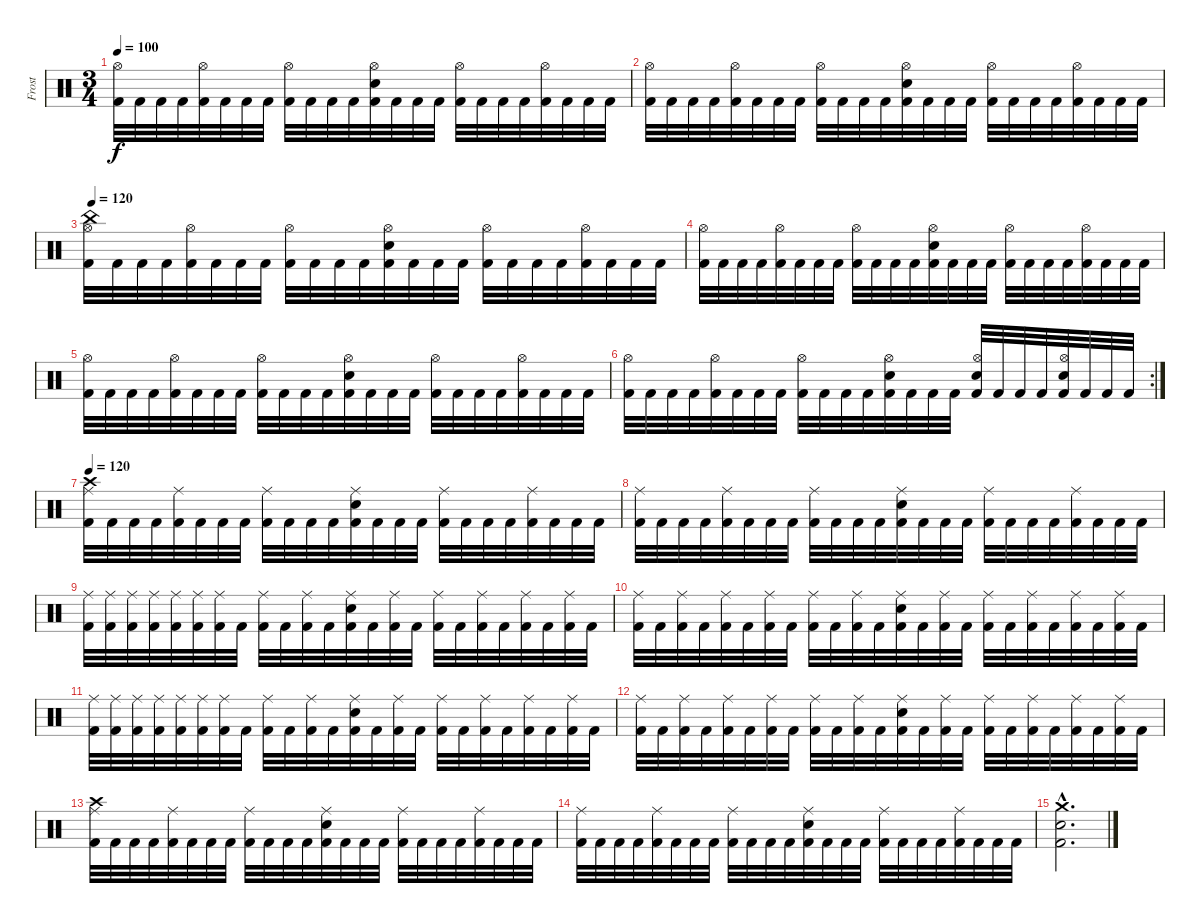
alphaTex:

\track ("Frost" "Frost") {instrument percussion}
\staff {score}
\articulation defaults
\ts (3 4)
\tempo 100
\clef neutral
\ks c
("Kick (hit) 2" "Hi-Hat (open)").32{dy f} "Kick (hit) 2".32 "Kick (hit) 2".32 "Kick (hit) 2".32 ("Kick (hit) 2" "Hi-Hat (open)").32 "Kick (hit) 2".32 "Kick (hit) 2".32 "Kick (hit) 2".32 ("Kick (hit) 2" "Hi-Hat (open)").32 "Kick (hit) 2".32 "Kick (hit) 2".32 "Kick (hit) 2".32 ("Kick (hit) 2" "Electric Snare (hit)" "Hi-Hat (open)").32 "Kick (hit) 2".32 "Kick (hit) 2".32 "Kick (hit) 2".32 ("Kick (hit) 2" "Hi-Hat (open)").32 "Kick (hit) 2".32 "Kick (hit) 2".32 "Kick (hit) 2".32 ("Kick (hit) 2" "Hi-Hat (open)").32 "Kick (hit) 2".32 "Kick (hit) 2".32 "Kick (hit) 2".32 |
("Kick (hit) 2" "Hi-Hat (open)").32 "Kick (hit) 2".32 "Kick (hit) 2".32 "Kick (hit) 2".32 ("Kick (hit) 2" "Hi-Hat (open)").32 "Kick (hit) 2".32 "Kick (hit) 2".32 "Kick (hit) 2".32 ("Kick (hit) 2" "Hi-Hat (open)").32 "Kick (hit) 2".32 "Kick (hit) 2".32 "Kick (hit) 2".32 ("Kick (hit) 2" "Electric Snare (hit)" "Hi-Hat (open)").32 "Kick (hit) 2".32 "Kick (hit) 2".32 "Kick (hit) 2".32 ("Kick (hit) 2" "Hi-Hat (open)").32 "Kick (hit) 2".32 "Kick (hit) 2".32 "Kick (hit) 2".32 ("Kick (hit) 2" "Hi-Hat (open)").32 "Kick (hit) 2".32 "Kick (hit) 2".32 "Kick (hit) 2".32 |
\tempo 120
("China (hit)" "Kick (hit) 2" "Hi-Hat (open)").32 "Kick (hit) 2".32 "Kick (hit) 2".32 "Kick (hit) 2".32 ("Kick (hit) 2" "Hi-Hat (open)").32 "Kick (hit) 2".32 "Kick (hit) 2".32 "Kick (hit) 2".32 ("Kick (hit) 2" "Hi-Hat (open)").32 "Kick (hit) 2".32 "Kick (hit) 2".32 "Kick (hit) 2".32 ("Kick (hit) 2" "Electric Snare (hit)" "Hi-Hat (open)").32 "Kick (hit) 2".32 "Kick (hit) 2".32 "Kick (hit) 2".32 ("Kick (hit) 2" "Hi-Hat (open)").32 "Kick (hit) 2".32 "Kick (hit) 2".32 "Kick (hit) 2".32 ("Kick (hit) 2" "Hi-Hat (open)").32 "Kick (hit) 2".32 "Kick (hit) 2".32 "Kick (hit) 2".32 |
("Kick (hit) 2" "Hi-Hat (open)").32 "Kick (hit) 2".32 "Kick (hit) 2".32 "Kick (hit) 2".32 ("Kick (hit) 2" "Hi-Hat (open)").32 "Kick (hit) 2".32 "Kick (hit) 2".32 "Kick (hit) 2".32 ("Kick (hit) 2" "Hi-Hat (open)").32 "Kick (hit) 2".32 "Kick (hit) 2".32 "Kick (hit) 2".32 ("Kick (hit) 2" "Electric Snare (hit)" "Hi-Hat (open)").32 "Kick (hit) 2".32 "Kick (hit) 2".32 "Kick (hit) 2".32 ("Kick (hit) 2" "Hi-Hat (open)").32 "Kick (hit) 2".32 "Kick (hit) 2".32 "Kick (hit) 2".32 ("Kick (hit) 2" "Hi-Hat (open)").32 "Kick (hit) 2".32 "Kick (hit) 2".32 "Kick (hit) 2".32 |
("Kick (hit) 2" "Hi-Hat (open)").32 "Kick (hit) 2".32 "Kick (hit) 2".32 "Kick (hit) 2".32 ("Kick (hit) 2" "Hi-Hat (open)").32 "Kick (hit) 2".32 "Kick (hit) 2".32 "Kick (hit) 2".32 ("Kick (hit) 2" "Hi-Hat (open)").32 "Kick (hit) 2".32 "Kick (hit) 2".32 "Kick (hit) 2".32 ("Kick (hit) 2" "Electric Snare (hit)" "Hi-Hat (open)").32 "Kick (hit) 2".32 "Kick (hit) 2".32 "Kick (hit) 2".32 ("Kick (hit) 2" "Hi-Hat (open)").32 "Kick (hit) 2".32 "Kick (hit) 2".32 "Kick (hit) 2".32 ("Kick (hit) 2" "Hi-Hat (open)").32 "Kick (hit) 2".32 "Kick (hit) 2".32 "Kick (hit) 2".32 |
\rc 2
("Kick (hit) 2" "Hi-Hat (open)").32 "Kick (hit) 2".32 "Kick (hit) 2".32 "Kick (hit) 2".32 ("Kick (hit) 2" "Hi-Hat (open)").32 "Kick (hit) 2".32 "Kick (hit) 2".32 "Kick (hit) 2".32 ("Kick (hit) 2" "Hi-Hat (open)").32 "Kick (hit) 2".32 "Kick (hit) 2".32 "Kick (hit) 2".32 ("Kick (hit) 2" "Electric Snare (hit)" "Hi-Hat (open)").32 "Kick (hit) 2".32 "Kick (hit) 2".32 "Kick (hit) 2".32 ("Kick (hit) 2" "Electric Snare (hit)" "Hi-Hat (open)").32 "Kick (hit) 2".32 "Kick (hit) 2".32 "Kick (hit) 2".32 ("Kick (hit) 2" "Electric Snare (hit)" "Hi-Hat (open)").32 "Kick (hit) 2".32 "Kick (hit) 2".32 "Kick (hit) 2".32 |
\tempo 120
("Crash high (hit)" "Kick (hit) 2" "Ride (middle)").32 "Kick (hit) 2".32 "Kick (hit) 2".32 "Kick (hit) 2".32 ("Kick (hit) 2" "Ride (middle)").32 "Kick (hit) 2".32 "Kick (hit) 2".32 "Kick (hit) 2".32 ("Kick (hit) 2" "Ride (middle)").32 "Kick (hit) 2".32 "Kick (hit) 2".32 "Kick (hit) 2".32 ("Kick (hit) 2" "Electric Snare (hit)" "Ride (middle)").32 "Kick (hit) 2".32 "Kick (hit) 2".32 "Kick (hit) 2".32 ("Kick (hit) 2" "Ride (middle)").32 "Kick (hit) 2".32 "Kick (hit) 2".32 "Kick (hit) 2".32 ("Kick (hit) 2" "Ride (middle)").32 "Kick (hit) 2".32 "Kick (hit) 2".32 "Kick (hit) 2".32 |
("Kick (hit) 2" "Ride (middle)").32 "Kick (hit) 2".32 "Kick (hit) 2".32 "Kick (hit) 2".32 ("Kick (hit) 2" "Ride (middle)").32 "Kick (hit) 2".32 "Kick (hit) 2".32 "Kick (hit) 2".32 ("Kick (hit) 2" "Ride (middle)").32 "Kick (hit) 2".32 "Kick (hit) 2".32 "Kick (hit) 2".32 ("Kick (hit) 2" "Electric Snare (hit)" "Ride (middle)").32 "Kick (hit) 2".32 "Kick (hit) 2".32 "Kick (hit) 2".32 ("Kick (hit) 2" "Ride (middle)").32 "Kick (hit) 2".32 "Kick (hit) 2".32 "Kick (hit) 2".32 ("Kick (hit) 2" "Ride (middle)").32 "Kick (hit) 2".32 "Kick (hit) 2".32 "Kick (hit) 2".32 |
("Kick (hit) 2" "Ride (middle)").32 ("Kick (hit) 2" "Ride (middle)").32 ("Kick (hit) 2" "Ride (middle)").32 ("Kick (hit) 2" "Ride (middle)").32 ("Kick (hit) 2" "Ride (middle)").32 ("Kick (hit) 2" "Ride (middle)").32 ("Kick (hit) 2" "Ride (middle)").32 "Kick (hit) 2".32 ("Kick (hit) 2" "Ride (middle)").32 "Kick (hit) 2".32 ("Kick (hit) 2" "Ride (middle)").32 "Kick (hit) 2".32 ("Kick (hit) 2" "Electric Snare (hit)" "Ride (middle)").32 "Kick (hit) 2".32 ("Kick (hit) 2" "Ride (middle)").32 "Kick (hit) 2".32 ("Kick (hit) 2" "Ride (middle)").32 "Kick (hit) 2".32 ("Kick (hit) 2" "Ride (middle)").32 "Kick (hit) 2".32 ("Kick (hit) 2" "Ride (middle)").32 "Kick (hit) 2".32 ("Kick (hit) 2" "Ride (middle)").32 "Kick (hit) 2".32 |
("Kick (hit) 2" "Ride (middle)").32 "Kick (hit) 2".32 ("Kick (hit) 2" "Ride (middle)").32 "Kick (hit) 2".32 ("Kick (hit) 2" "Ride (middle)").32 "Kick (hit) 2".32 ("Kick (hit) 2" "Ride (middle)").32 "Kick (hit) 2".32 ("Kick (hit) 2" "Ride (middle)").32 "Kick (hit) 2".32 ("Kick (hit) 2" "Ride (middle)").32 "Kick (hit) 2".32 ("Kick (hit) 2" "Electric Snare (hit)" "Ride (middle)").32 "Kick (hit) 2".32 ("Kick (hit) 2" "Ride (middle)").32 "Kick (hit) 2".32 ("Kick (hit) 2" "Ride (middle)").32 "Kick (hit) 2".32 ("Kick (hit) 2" "Ride (middle)").32 "Kick (hit) 2".32 ("Kick (hit) 2" "Ride (middle)").32 "Kick (hit) 2".32 ("Kick (hit) 2" "Ride (middle)").32 "Kick (hit) 2".32 |
("Kick (hit) 2" "Ride (middle)").32 ("Kick (hit) 2" "Ride (middle)").32 ("Kick (hit) 2" "Ride (middle)").32 ("Kick (hit) 2" "Ride (middle)").32 ("Kick (hit) 2" "Ride (middle)").32 ("Kick (hit) 2" "Ride (middle)").32 ("Kick (hit) 2" "Ride (middle)").32 "Kick (hit) 2".32 ("Kick (hit) 2" "Ride (middle)").32 "Kick (hit) 2".32 ("Kick (hit) 2" "Ride (middle)").32 "Kick (hit) 2".32 ("Kick (hit) 2" "Electric Snare (hit)" "Ride (middle)").32 "Kick (hit) 2".32 ("Kick (hit) 2" "Ride (middle)").32 "Kick (hit) 2".32 ("Kick (hit) 2" "Ride (middle)").32 "Kick (hit) 2".32 ("Kick (hit) 2" "Ride (middle)").32 "Kick (hit) 2".32 ("Kick (hit) 2" "Ride (middle)").32 "Kick (hit) 2".32 ("Kick (hit) 2" "Ride (middle)").32 "Kick (hit) 2".32 |
("Kick (hit) 2" "Ride (middle)").32 "Kick (hit) 2".32 ("Kick (hit) 2" "Ride (middle)").32 "Kick (hit) 2".32 ("Kick (hit) 2" "Ride (middle)").32 "Kick (hit) 2".32 ("Kick (hit) 2" "Ride (middle)").32 "Kick (hit) 2".32 ("Kick (hit) 2" "Ride (middle)").32 "Kick (hit) 2".32 ("Kick (hit) 2" "Ride (middle)").32 "Kick (hit) 2".32 ("Kick (hit) 2" "Electric Snare (hit)" "Ride (middle)").32 "Kick (hit) 2".32 ("Kick (hit) 2" "Ride (middle)").32 "Kick (hit) 2".32 ("Kick (hit) 2" "Ride (middle)").32 "Kick (hit) 2".32 ("Kick (hit) 2" "Ride (middle)").32 "Kick (hit) 2".32 ("Kick (hit) 2" "Ride (middle)").32 "Kick (hit) 2".32 ("Kick (hit) 2" "Ride (middle)").32 "Kick (hit) 2".32 |
("Crash high (hit)" "Kick (hit) 2" "Ride (middle)").32 "Kick (hit) 2".32 "Kick (hit) 2".32 "Kick (hit) 2".32 ("Kick (hit) 2" "Ride (middle)").32 "Kick (hit) 2".32 "Kick (hit) 2".32 "Kick (hit) 2".32 ("Kick (hit) 2" "Ride (middle)").32 "Kick (hit) 2".32 "Kick (hit) 2".32 "Kick (hit) 2".32 ("Kick (hit) 2" "Electric Snare (hit)" "Ride (middle)").32 "Kick (hit) 2".32 "Kick (hit) 2".32 "Kick (hit) 2".32 ("Kick (hit) 2" "Ride (middle)").32 "Kick (hit) 2".32 "Kick (hit) 2".32 "Kick (hit) 2".32 ("Kick (hit) 2" "Ride (middle)").32 "Kick (hit) 2".32 "Kick (hit) 2".32 "Kick (hit) 2".32 |
("Kick (hit) 2" "Ride (middle)").32 "Kick (hit) 2".32 "Kick (hit) 2".32 "Kick (hit) 2".32 ("Kick (hit) 2" "Ride (middle)").32 "Kick (hit) 2".32 "Kick (hit) 2".32 "Kick (hit) 2".32 ("Kick (hit) 2" "Ride (middle)").32 "Kick (hit) 2".32 "Kick (hit) 2".32 "Kick (hit) 2".32 ("Kick (hit) 2" "Electric Snare (hit)" "Ride (middle)").32 "Kick (hit) 2".32 "Kick (hit) 2".32 "Kick (hit) 2".32 ("Kick (hit) 2" "Ride (middle)").32 "Kick (hit) 2".32 "Kick (hit) 2".32 "Kick (hit) 2".32 ("Kick (hit) 2" "Ride (middle)").32 "Kick (hit) 2".32 "Kick (hit) 2".32 "Kick (hit) 2".32 |
("Crash medium (hit)"{hac} "Electric Snare (hit)"{hac} "Kick (hit) 2"{hac}).2{d}
